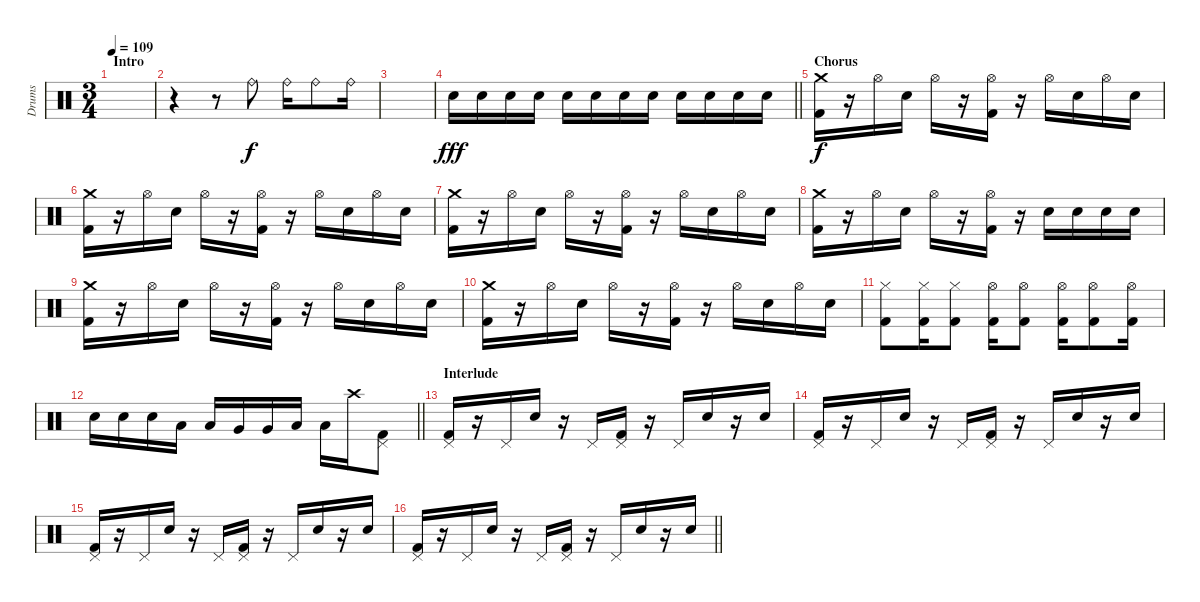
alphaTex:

\track ("Drums" "Drums") {instrument percussion}
\staff {score}
\articulation defaults
\ts (3 4)
\section ("" "Intro")
\tempo 109
\clef neutral
\ks c
|
r.4 r.8 "Ride (bell)".8 "Ride (bell)".16 "Ride (bell)".8 "Ride (bell)".16 |
|
\barLineRight lightlight "Electric Snare (hit)".16{dy fff} "Electric Snare (hit)".16 "Electric Snare (hit)".16 "Electric Snare (hit)".16 "Electric Snare (hit)".16 "Electric Snare (hit)".16 "Electric Snare (hit)".16 "Electric Snare (hit)".16 "Electric Snare (hit)".16 "Electric Snare (hit)".16 "Electric Snare (hit)".16 "Electric Snare (hit)".16
|
\section ("" "Chorus")
("Crash medium (hit)" "Kick (hit) 2").16{dy f} r.16 "Hi-Hat (open)".16 "Electric Snare (hit)".16 "Hi-Hat (open)".16 r.16 ("Hi-Hat (open)" "Kick (hit) 2").16 r.16 "Hi-Hat (open)".16 "Electric Snare (hit)".16 "Hi-Hat (open)".16 "Electric Snare (hit)".16 |
("Crash medium (hit)" "Kick (hit) 2").16 r.16 "Hi-Hat (open)".16 "Electric Snare (hit)".16 "Hi-Hat (open)".16 r.16 ("Hi-Hat (open)" "Kick (hit) 2").16 r.16 "Hi-Hat (open)".16 "Electric Snare (hit)".16 "Hi-Hat (open)".16 "Electric Snare (hit)".16 |
("Crash medium (hit)" "Kick (hit) 2").16 r.16 "Hi-Hat (open)".16 "Electric Snare (hit)".16 "Hi-Hat (open)".16 r.16 ("Hi-Hat (open)" "Kick (hit) 2").16 r.16 "Hi-Hat (open)".16 "Electric Snare (hit)".16 "Hi-Hat (open)".16 "Electric Snare (hit)".16 |
("Crash medium (hit)" "Kick (hit) 2").16 r.16 "Hi-Hat (open)".16 "Electric Snare (hit)".16 "Hi-Hat (open)".16 r.16 ("Hi-Hat (open)" "Kick (hit) 2").16 r.16 "Electric Snare (hit)".16 "Electric Snare (hit)".16 "Electric Snare (hit)".16 "Electric Snare (hit)".16 |
("Crash medium (hit)" "Kick (hit) 2").16 r.16 "Hi-Hat (open)".16 "Electric Snare (hit)".16 "Hi-Hat (open)".16 r.16 ("Hi-Hat (open)" "Kick (hit) 2").16 r.16 "Hi-Hat (open)".16 "Electric Snare (hit)".16 "Hi-Hat (open)".16 "Electric Snare (hit)".16 |
("Crash medium (hit)" "Kick (hit) 2").16 r.16 "Hi-Hat (open)".16 "Electric Snare (hit)".16 "Hi-Hat (open)".16 r.16 ("Hi-Hat (open)" "Kick (hit) 2").16 r.16 "Hi-Hat (open)".16 "Electric Snare (hit)".16 "Hi-Hat (open)".16 "Electric Snare (hit)".16 |
("Hi-Hat (closed)" "Kick (hit) 2").8 ("Hi-Hat (closed)" "Kick (hit) 2").16 ("Hi-Hat (closed)" "Kick (hit) 2").8 ("Hi-Hat (open)" "Kick (hit) 2").16 ("Hi-Hat (open)" "Kick (hit) 2").8 ("Hi-Hat (open)" "Kick (hit) 2").16 ("Hi-Hat (open)" "Kick (hit) 2").8 ("Hi-Hat (open)" "Kick (hit) 2").16 |
\barLineRight lightlight "Electric Snare (hit)".16 "Electric Snare (hit)".16 "Electric Snare (hit)".16 "Low Tom (hit)".16 "Low Tom (hit)".16 "Very Low Tom (hit)".16 "Very Low Tom (hit)".16 "Low Floor Tom (hit)".16 "Low Floor Tom (hit)".16 "Crash high (hit)".16
("Pedal Hi-Hat (hit)" "Kick (hit) 2").8 |
\section ("" "Interlude")
("Pedal Hi-Hat (hit)" "Kick (hit) 2").16 r.16 "Pedal Hi-Hat (hit)".16 "Electric Snare (hit)".16 r.16 "Pedal Hi-Hat (hit)".16 ("Pedal Hi-Hat (hit)" "Kick (hit) 2").16 r.16 "Pedal Hi-Hat (hit)".16 "Electric Snare (hit)".16 r.16 "Electric Snare (hit)".16 |
("Pedal Hi-Hat (hit)" "Kick (hit) 2").16 r.16 "Pedal Hi-Hat (hit)".16 "Electric Snare (hit)".16 r.16 "Pedal Hi-Hat (hit)".16 ("Pedal Hi-Hat (hit)" "Kick (hit) 2").16 r.16 "Pedal Hi-Hat (hit)".16 "Electric Snare (hit)".16 r.16 "Electric Snare (hit)".16 |
("Pedal Hi-Hat (hit)" "Kick (hit) 2").16 r.16 "Pedal Hi-Hat (hit)".16 "Electric Snare (hit)".16 r.16 "Pedal Hi-Hat (hit)".16 ("Pedal Hi-Hat (hit)" "Kick (hit) 2").16 r.16 "Pedal Hi-Hat (hit)".16 "Electric Snare (hit)".16 r.16 "Electric Snare (hit)".16 |
\barLineRight lightlight
("Pedal Hi-Hat (hit)" "Kick (hit) 2").16 r.16 "Pedal Hi-Hat (hit)".16 "Electric Snare (hit)".16 r.16 "Pedal Hi-Hat (hit)".16 ("Pedal Hi-Hat (hit)" "Kick (hit) 2").16 r.16 "Pedal Hi-Hat (hit)".16 "Electric Snare (hit)".16 r.16 "Electric Snare (hit)".16
